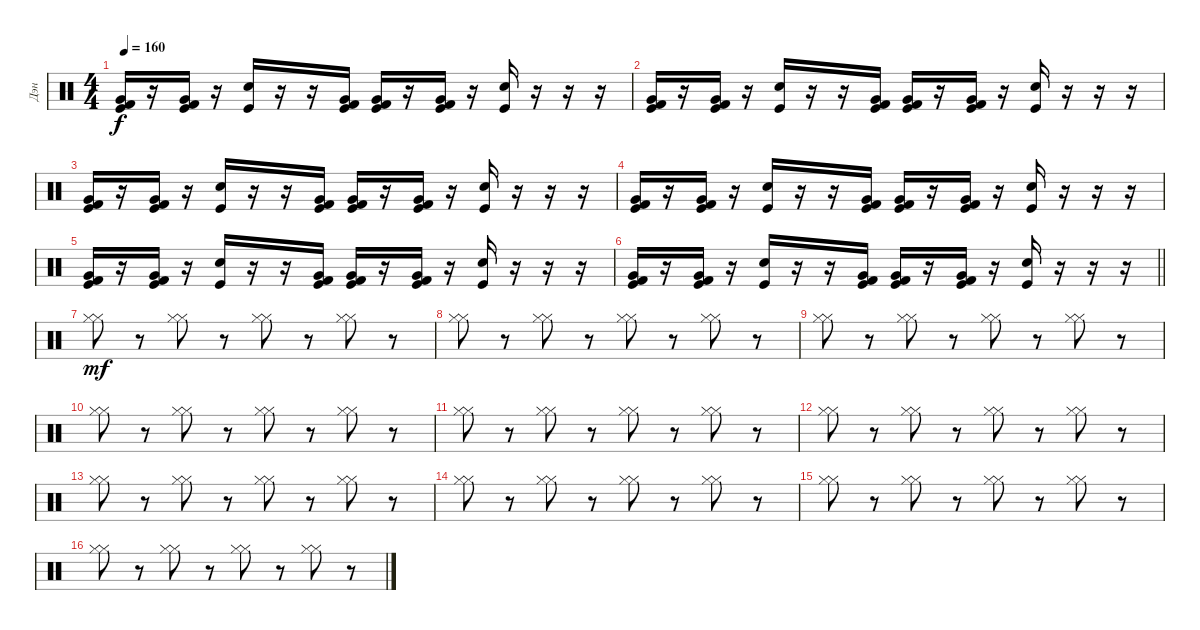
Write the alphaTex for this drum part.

\track ("Дэн" "Дэн") {instrument percussion}
\staff {score}
\articulation defaults
\ts (4 4)
\tempo 160
\clef neutral
\ks c
("Very Low Tom (hit)" "Kick (hit) 2" "Kick (hit)").16{dy f} r.16 ("Very Low Tom (hit)" "Kick (hit) 2" "Kick (hit)").16 r.16 ("Electric Snare (hit)" "Kick (hit)").16 r.16 r.16 ("Very Low Tom (hit)" "Kick (hit) 2" "Kick (hit)").16 ("Very Low Tom (hit)" "Kick (hit) 2" "Kick (hit)").16 r.16 ("Very Low Tom (hit)" "Kick (hit) 2" "Kick (hit)").16 r.16 ("Electric Snare (hit)" "Kick (hit)").16 r.16 r.16 r.16 |
("Very Low Tom (hit)" "Kick (hit) 2" "Kick (hit)").16 r.16 ("Very Low Tom (hit)" "Kick (hit) 2" "Kick (hit)").16 r.16 ("Electric Snare (hit)" "Kick (hit)").16 r.16 r.16 ("Very Low Tom (hit)" "Kick (hit) 2" "Kick (hit)").16 ("Very Low Tom (hit)" "Kick (hit) 2" "Kick (hit)").16 r.16 ("Very Low Tom (hit)" "Kick (hit) 2" "Kick (hit)").16 r.16 ("Electric Snare (hit)" "Kick (hit)").16 r.16 r.16 r.16 |
("Very Low Tom (hit)" "Kick (hit) 2" "Kick (hit)").16 r.16 ("Very Low Tom (hit)" "Kick (hit) 2" "Kick (hit)").16 r.16 ("Electric Snare (hit)" "Kick (hit)").16 r.16 r.16 ("Very Low Tom (hit)" "Kick (hit) 2" "Kick (hit)").16 ("Very Low Tom (hit)" "Kick (hit) 2" "Kick (hit)").16 r.16 ("Very Low Tom (hit)" "Kick (hit) 2" "Kick (hit)").16 r.16 ("Electric Snare (hit)" "Kick (hit)").16 r.16 r.16 r.16 |
("Very Low Tom (hit)" "Kick (hit) 2" "Kick (hit)").16 r.16 ("Very Low Tom (hit)" "Kick (hit) 2" "Kick (hit)").16 r.16 ("Electric Snare (hit)" "Kick (hit)").16 r.16 r.16 ("Very Low Tom (hit)" "Kick (hit) 2" "Kick (hit)").16 ("Very Low Tom (hit)" "Kick (hit) 2" "Kick (hit)").16 r.16 ("Very Low Tom (hit)" "Kick (hit) 2" "Kick (hit)").16 r.16 ("Electric Snare (hit)" "Kick (hit)").16 r.16 r.16 r.16 |
("Very Low Tom (hit)" "Kick (hit) 2" "Kick (hit)").16 r.16 ("Very Low Tom (hit)" "Kick (hit) 2" "Kick (hit)").16 r.16 ("Electric Snare (hit)" "Kick (hit)").16 r.16 r.16 ("Very Low Tom (hit)" "Kick (hit) 2" "Kick (hit)").16 ("Very Low Tom (hit)" "Kick (hit) 2" "Kick (hit)").16 r.16 ("Very Low Tom (hit)" "Kick (hit) 2" "Kick (hit)").16 r.16 ("Electric Snare (hit)" "Kick (hit)").16 r.16 r.16 r.16 |
\barLineRight lightlight
("Very Low Tom (hit)" "Kick (hit) 2" "Kick (hit)").16 r.16 ("Very Low Tom (hit)" "Kick (hit) 2" "Kick (hit)").16 r.16 ("Electric Snare (hit)" "Kick (hit)").16 r.16 r.16 ("Very Low Tom (hit)" "Kick (hit) 2" "Kick (hit)").16 ("Very Low Tom (hit)" "Kick (hit) 2" "Kick (hit)").16 r.16 ("Very Low Tom (hit)" "Kick (hit) 2" "Kick (hit)").16 r.16 ("Electric Snare (hit)" "Kick (hit)").16 r.16 r.16 r.16 |
("Hi-Hat (closed)" "Hi-Hat (closed)").8{dy mf} r.8 ("Hi-Hat (closed)" "Hi-Hat (closed)").8 r.8 ("Hi-Hat (closed)" "Hi-Hat (closed)").8 r.8 ("Hi-Hat (closed)" "Hi-Hat (closed)").8 r.8 |
("Hi-Hat (closed)" "Hi-Hat (closed)").8 r.8 ("Hi-Hat (closed)" "Hi-Hat (closed)").8 r.8 ("Hi-Hat (closed)" "Hi-Hat (closed)").8 r.8 ("Hi-Hat (closed)" "Hi-Hat (closed)").8 r.8 |
("Hi-Hat (closed)" "Hi-Hat (closed)").8 r.8 ("Hi-Hat (closed)" "Hi-Hat (closed)").8 r.8 ("Hi-Hat (closed)" "Hi-Hat (closed)").8 r.8 ("Hi-Hat (closed)" "Hi-Hat (closed)").8 r.8 |
("Hi-Hat (closed)" "Hi-Hat (closed)").8 r.8 ("Hi-Hat (closed)" "Hi-Hat (closed)").8 r.8 ("Hi-Hat (closed)" "Hi-Hat (closed)").8 r.8 ("Hi-Hat (closed)" "Hi-Hat (closed)").8 r.8 |
("Hi-Hat (closed)" "Hi-Hat (closed)").8 r.8 ("Hi-Hat (closed)" "Hi-Hat (closed)").8 r.8 ("Hi-Hat (closed)" "Hi-Hat (closed)").8 r.8 ("Hi-Hat (closed)" "Hi-Hat (closed)").8 r.8 |
("Hi-Hat (closed)" "Hi-Hat (closed)").8 r.8 ("Hi-Hat (closed)" "Hi-Hat (closed)").8 r.8 ("Hi-Hat (closed)" "Hi-Hat (closed)").8 r.8 ("Hi-Hat (closed)" "Hi-Hat (closed)").8 r.8 |
("Hi-Hat (closed)" "Hi-Hat (closed)").8 r.8 ("Hi-Hat (closed)" "Hi-Hat (closed)").8 r.8 ("Hi-Hat (closed)" "Hi-Hat (closed)").8 r.8 ("Hi-Hat (closed)" "Hi-Hat (closed)").8 r.8 |
("Hi-Hat (closed)" "Hi-Hat (closed)").8 r.8 ("Hi-Hat (closed)" "Hi-Hat (closed)").8 r.8 ("Hi-Hat (closed)" "Hi-Hat (closed)").8 r.8 ("Hi-Hat (closed)" "Hi-Hat (closed)").8 r.8 |
("Hi-Hat (closed)" "Hi-Hat (closed)").8 r.8 ("Hi-Hat (closed)" "Hi-Hat (closed)").8 r.8 ("Hi-Hat (closed)" "Hi-Hat (closed)").8 r.8 ("Hi-Hat (closed)" "Hi-Hat (closed)").8 r.8 |
("Hi-Hat (closed)" "Hi-Hat (closed)").8 r.8 ("Hi-Hat (closed)" "Hi-Hat (closed)").8 r.8 ("Hi-Hat (closed)" "Hi-Hat (closed)").8 r.8 ("Hi-Hat (closed)" "Hi-Hat (closed)").8 r.8
